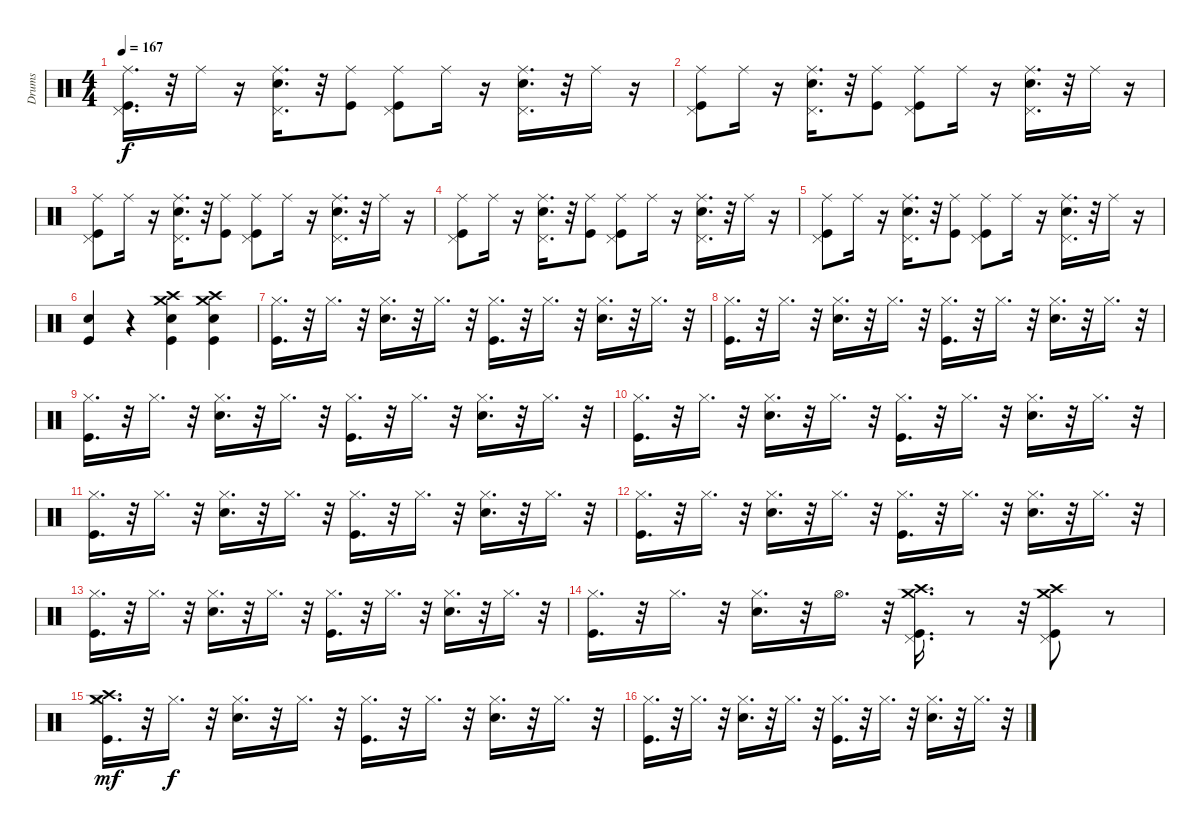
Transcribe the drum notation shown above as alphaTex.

\track ("Drums" "Drums") {instrument percussion}
\staff {score}
\articulation defaults
\ts (4 4)
\tempo 167
\clef neutral
\ks c
("Ride (middle)" "Pedal Hi-Hat (hit)" "Kick (hit)").16{d dy f} r.32 "Ride (middle)".16 r.16 ("Pedal Hi-Hat (hit)" "Ride (middle)" "Electric Snare (hit)").16{d} r.32 ("Ride (middle)" "Kick (hit)").8 ("Pedal Hi-Hat (hit)" "Kick (hit)" "Ride (middle)").8 "Ride (middle)".16 r.16 ("Electric Snare (hit)" "Ride (middle)" "Pedal Hi-Hat (hit)").16{d} r.32 "Ride (middle)".16 r.16 |
("Kick (hit)" "Ride (middle)" "Pedal Hi-Hat (hit)").8 "Ride (middle)".16 r.16 ("Pedal Hi-Hat (hit)" "Electric Snare (hit)" "Ride (middle)").16{d} r.32 ("Ride (middle)" "Kick (hit)").8 ("Kick (hit)" "Pedal Hi-Hat (hit)" "Ride (middle)").8 "Ride (middle)".16 r.16 ("Ride (middle)" "Pedal Hi-Hat (hit)" "Electric Snare (hit)").16{d} r.32 "Ride (middle)".16 r.16 |
("Kick (hit)" "Ride (middle)" "Pedal Hi-Hat (hit)").8 "Ride (middle)".16 r.16 ("Ride (middle)" "Pedal Hi-Hat (hit)" "Electric Snare (hit)").16{d} r.32 ("Kick (hit)" "Ride (middle)").8 ("Ride (middle)" "Kick (hit)" "Pedal Hi-Hat (hit)").8 "Ride (middle)".16 r.16 ("Ride (middle)" "Electric Snare (hit)" "Pedal Hi-Hat (hit)").16{d} r.32 "Ride (middle)".16 r.16 |
("Ride (middle)" "Pedal Hi-Hat (hit)" "Kick (hit)").8 "Ride (middle)".16 r.16 ("Pedal Hi-Hat (hit)" "Electric Snare (hit)" "Ride (middle)").16{d} r.32 ("Kick (hit)" "Ride (middle)").8 ("Kick (hit)" "Ride (middle)" "Pedal Hi-Hat (hit)").8 "Ride (middle)".16 r.16 ("Electric Snare (hit)" "Ride (middle)" "Pedal Hi-Hat (hit)").16{d} r.32 "Ride (middle)".16 r.16 |
("Pedal Hi-Hat (hit)" "Kick (hit)" "Ride (middle)").8 "Ride (middle)".16 r.16 ("Ride (middle)" "Pedal Hi-Hat (hit)" "Electric Snare (hit)").16{d} r.32 ("Kick (hit)" "Ride (middle)").8 ("Kick (hit)" "Ride (middle)" "Pedal Hi-Hat (hit)").8 "Ride (middle)".16 r.16 ("Ride (middle)" "Electric Snare (hit)" "Pedal Hi-Hat (hit)").16{d} r.32 "Ride (middle)".16 r.16 |
("Electric Snare (hit)" "Kick (hit)").4 r.4 ("Kick (hit)" "Crash medium (hit)" "Crash high (hit)" "Electric Snare (hit)").4 ("Crash medium (hit)" "Crash high (hit)" "Electric Snare (hit)" "Kick (hit)").4 |
("Hi-Hat (closed)" "Kick (hit)").16{d} r.32 "Hi-Hat (closed)".16{d} r.32 ("Hi-Hat (closed)" "Electric Snare (hit)").16{d} r.32 "Hi-Hat (closed)".16{d} r.32 ("Hi-Hat (closed)" "Kick (hit)").16{d} r.32 "Hi-Hat (closed)".16{d} r.32 ("Hi-Hat (closed)" "Electric Snare (hit)").16{d} r.32 "Hi-Hat (closed)".16{d} r.32 |
("Hi-Hat (closed)" "Kick (hit)").16{d} r.32 "Hi-Hat (closed)".16{d} r.32 ("Hi-Hat (closed)" "Electric Snare (hit)").16{d} r.32 "Hi-Hat (closed)".16{d} r.32 ("Hi-Hat (closed)" "Kick (hit)").16{d} r.32 "Hi-Hat (closed)".16{d} r.32 ("Hi-Hat (closed)" "Electric Snare (hit)").16{d} r.32 "Hi-Hat (closed)".16{d} r.32 |
("Hi-Hat (closed)" "Kick (hit)").16{d} r.32 "Hi-Hat (closed)".16{d} r.32 ("Hi-Hat (closed)" "Electric Snare (hit)").16{d} r.32 "Hi-Hat (closed)".16{d} r.32 ("Hi-Hat (closed)" "Kick (hit)").16{d} r.32 "Hi-Hat (closed)".16{d} r.32 ("Hi-Hat (closed)" "Electric Snare (hit)").16{d} r.32 "Hi-Hat (closed)".16{d} r.32 |
("Hi-Hat (closed)" "Kick (hit)").16{d} r.32 "Hi-Hat (closed)".16{d} r.32 ("Hi-Hat (closed)" "Electric Snare (hit)").16{d} r.32 "Hi-Hat (closed)".16{d} r.32 ("Hi-Hat (closed)" "Kick (hit)").16{d} r.32 "Hi-Hat (closed)".16{d} r.32 ("Hi-Hat (closed)" "Electric Snare (hit)").16{d} r.32 "Hi-Hat (closed)".16{d} r.32 |
("Hi-Hat (closed)" "Kick (hit)").16{d} r.32 "Hi-Hat (closed)".16{d} r.32 ("Hi-Hat (closed)" "Electric Snare (hit)").16{d} r.32 "Hi-Hat (closed)".16{d} r.32 ("Hi-Hat (closed)" "Kick (hit)").16{d} r.32 "Hi-Hat (closed)".16{d} r.32 ("Hi-Hat (closed)" "Electric Snare (hit)").16{d} r.32 "Hi-Hat (closed)".16{d} r.32 |
("Hi-Hat (closed)" "Kick (hit)").16{d} r.32 "Hi-Hat (closed)".16{d} r.32 ("Hi-Hat (closed)" "Electric Snare (hit)").16{d} r.32 "Hi-Hat (closed)".16{d} r.32 ("Hi-Hat (closed)" "Kick (hit)").16{d} r.32 "Hi-Hat (closed)".16{d} r.32 ("Hi-Hat (closed)" "Electric Snare (hit)").16{d} r.32 "Hi-Hat (closed)".16{d} r.32 |
("Hi-Hat (closed)" "Kick (hit)").16{d} r.32 "Hi-Hat (closed)".16{d} r.32 ("Hi-Hat (closed)" "Electric Snare (hit)").16{d} r.32 "Hi-Hat (closed)".16{d} r.32 ("Hi-Hat (closed)" "Kick (hit)").16{d} r.32 "Hi-Hat (closed)".16{d} r.32 ("Hi-Hat (closed)" "Electric Snare (hit)").16{d} r.32 "Hi-Hat (closed)".16{d} r.32 |
("Hi-Hat (closed)" "Kick (hit)").16{d} r.32 "Hi-Hat (closed)".16{d} r.32 ("Hi-Hat (closed)" "Electric Snare (hit)").16{d} r.32 "Hi-Hat (open)".16{d} r.32 ("Crash medium (hit)" "Pedal Hi-Hat (hit)" "Crash high (hit)" "Kick (hit)").16{d} r.8 r.32 ("Crash medium (hit)" "Pedal Hi-Hat (hit)" "Kick (hit)" "Crash high (hit)").8 r.8 |
("Crash high (hit)" "Hi-Hat (closed)" "Kick (hit)" "Crash medium (hit)").16{d dy mf} r.32 "Hi-Hat (closed)".16{d dy f} r.32 ("Hi-Hat (closed)" "Electric Snare (hit)").16{d} r.32 "Hi-Hat (closed)".16{d} r.32 ("Hi-Hat (closed)" "Kick (hit)").16{d} r.32 "Hi-Hat (closed)".16{d} r.32 ("Hi-Hat (closed)" "Electric Snare (hit)").16{d} r.32 "Hi-Hat (closed)".16{d} r.32 |
("Hi-Hat (closed)" "Kick (hit)").16{d} r.32 "Hi-Hat (closed)".16{d} r.32 ("Hi-Hat (closed)" "Electric Snare (hit)").16{d} r.32 "Hi-Hat (closed)".16{d} r.32 ("Hi-Hat (closed)" "Kick (hit)").16{d} r.32 "Hi-Hat (closed)".16{d} r.32 ("Hi-Hat (closed)" "Electric Snare (hit)").16{d} r.32 "Hi-Hat (closed)".16{d} r.32
